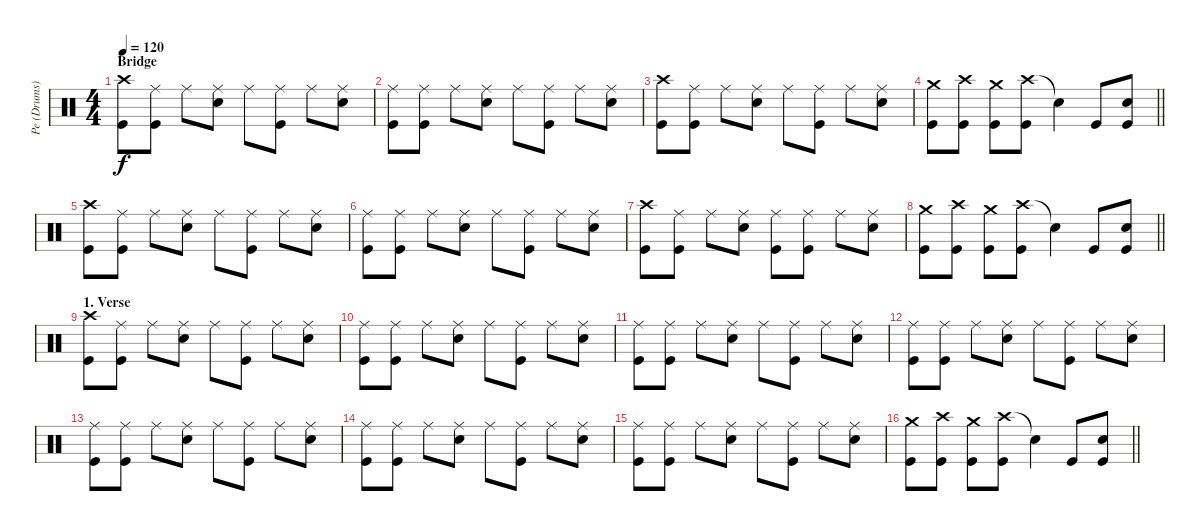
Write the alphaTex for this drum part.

\track ("Pe (Drums)" "Pe (Drums)") {instrument percussion}
\staff {score}
\articulation defaults
\ts (4 4)
\section ("" "Bridge")
\tempo 120
\clef neutral
\ks c
("Crash high (hit)" "Kick (hit)").8{dy f} ("Ride (middle)" "Kick (hit)").8 "Ride (middle)".8 ("Ride (middle)" "Electric Snare (hit)").8 "Ride (middle)".8 ("Ride (middle)" "Kick (hit)").8 "Ride (middle)".8 ("Ride (middle)" "Electric Snare (hit)").8 |
("Ride (middle)" "Kick (hit)").8 ("Ride (middle)" "Kick (hit)").8 "Ride (middle)".8 ("Ride (middle)" "Electric Snare (hit)").8 "Ride (middle)".8 ("Ride (middle)" "Kick (hit)").8 "Ride (middle)".8 ("Ride (middle)" "Electric Snare (hit)").8 |
("Crash high (hit)" "Kick (hit)").8 ("Ride (middle)" "Kick (hit)").8 "Ride (middle)".8 ("Ride (middle)" "Electric Snare (hit)").8 "Ride (middle)".8 ("Ride (middle)" "Kick (hit)").8 "Ride (middle)".8 ("Ride (middle)" "Electric Snare (hit)").8 |
\barLineRight lightlight
("Crash medium (hit)" "Kick (hit)").8 ("Crash high (hit)" "Kick (hit)").8 ("Crash medium (hit)" "Kick (hit)").8 ("Crash high (hit)" "Kick (hit)").8 "Snare (hit)"{t}.4 "Kick (hit)".8 ("Electric Snare (hit)" "Kick (hit)").8 |
("Crash high (hit)" "Kick (hit)").8 ("Ride (middle)" "Kick (hit)").8 "Ride (middle)".8 ("Ride (middle)" "Electric Snare (hit)").8 "Ride (middle)".8 ("Ride (middle)" "Kick (hit)").8 "Ride (middle)".8 ("Ride (middle)" "Electric Snare (hit)").8 |
("Ride (middle)" "Kick (hit)").8 ("Ride (middle)" "Kick (hit)").8 "Ride (middle)".8 ("Ride (middle)" "Electric Snare (hit)").8 "Ride (middle)".8 ("Ride (middle)" "Kick (hit)").8 "Ride (middle)".8 ("Ride (middle)" "Electric Snare (hit)").8 |
("Crash high (hit)" "Kick (hit)").8 ("Ride (middle)" "Kick (hit)").8 "Ride (middle)".8 ("Ride (middle)" "Electric Snare (hit)").8 ("Ride (middle)" "Kick (hit)").8 ("Ride (middle)" "Kick (hit)").8 "Ride (middle)".8 ("Ride (middle)" "Electric Snare (hit)").8 |
\barLineRight lightlight
("Crash medium (hit)" "Kick (hit)").8 ("Crash high (hit)" "Kick (hit)").8 ("Crash medium (hit)" "Kick (hit)").8 ("Crash high (hit)" "Kick (hit)").8 "Snare (hit)"{t}.4 "Kick (hit)".8 ("Electric Snare (hit)" "Kick (hit)").8 |
\section ("" "1. Verse")
("Crash high (hit)" "Kick (hit)").8 ("Ride (middle)" "Kick (hit)").8 "Ride (middle)".8 ("Ride (middle)" "Electric Snare (hit)").8 "Ride (middle)".8 ("Ride (middle)" "Kick (hit)").8 "Ride (middle)".8 ("Ride (middle)" "Electric Snare (hit)").8 |
("Ride (middle)" "Kick (hit)").8 ("Ride (middle)" "Kick (hit)").8 "Ride (middle)".8 ("Ride (middle)" "Electric Snare (hit)").8 "Ride (middle)".8 ("Ride (middle)" "Kick (hit)").8 "Ride (middle)".8 ("Ride (middle)" "Electric Snare (hit)").8 |
("Ride (middle)" "Kick (hit)").8 ("Ride (middle)" "Kick (hit)").8 "Ride (middle)".8 ("Ride (middle)" "Electric Snare (hit)").8 "Ride (middle)".8 ("Ride (middle)" "Kick (hit)").8 "Ride (middle)".8 ("Ride (middle)" "Electric Snare (hit)").8 |
("Ride (middle)" "Kick (hit)").8 ("Ride (middle)" "Kick (hit)").8 "Ride (middle)".8 ("Ride (middle)" "Electric Snare (hit)").8 "Ride (middle)".8 ("Ride (middle)" "Kick (hit)").8 "Ride (middle)".8 ("Ride (middle)" "Electric Snare (hit)").8 |
("Ride (middle)" "Kick (hit)").8 ("Ride (middle)" "Kick (hit)").8 "Ride (middle)".8 ("Ride (middle)" "Electric Snare (hit)").8 "Ride (middle)".8 ("Ride (middle)" "Kick (hit)").8 "Ride (middle)".8 ("Ride (middle)" "Electric Snare (hit)").8 |
("Ride (middle)" "Kick (hit)").8 ("Ride (middle)" "Kick (hit)").8 "Ride (middle)".8 ("Ride (middle)" "Electric Snare (hit)").8 "Ride (middle)".8 ("Ride (middle)" "Kick (hit)").8 "Ride (middle)".8 ("Ride (middle)" "Electric Snare (hit)").8 |
("Ride (middle)" "Kick (hit)").8 ("Ride (middle)" "Kick (hit)").8 "Ride (middle)".8 ("Ride (middle)" "Electric Snare (hit)").8 "Ride (middle)".8 ("Ride (middle)" "Kick (hit)").8 "Ride (middle)".8 ("Ride (middle)" "Electric Snare (hit)").8 |
\barLineRight lightlight
("Crash medium (hit)" "Kick (hit)").8 ("Crash high (hit)" "Kick (hit)").8 ("Crash medium (hit)" "Kick (hit)").8 ("Crash high (hit)" "Kick (hit)").8 "Snare (hit)"{t}.4 "Kick (hit)".8 ("Electric Snare (hit)" "Kick (hit)").8
